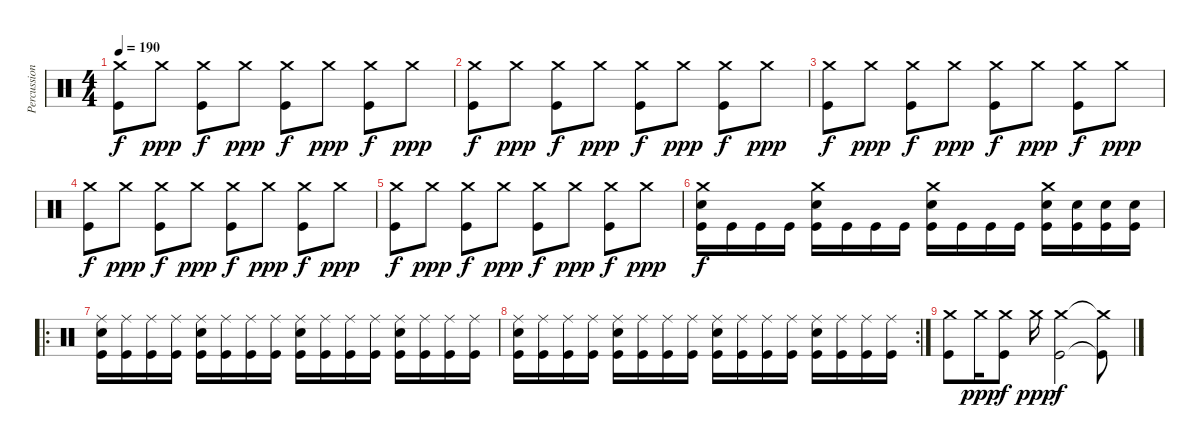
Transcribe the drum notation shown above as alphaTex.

\track ("Percussion" "Percussion") {instrument percussion}
\staff {score}
\articulation defaults
\ts (4 4)
\tempo 190
\clef neutral
\ks c
("Crash medium (hit)" "Kick (hit)").8{dy f} "Crash medium (hit)".8{dy ppp} ("Crash medium (hit)" "Kick (hit)").8{dy f} "Crash medium (hit)".8{dy ppp} ("Crash medium (hit)" "Kick (hit)").8{dy f} "Crash medium (hit)".8{dy ppp} ("Crash medium (hit)" "Kick (hit)").8{dy f} "Crash medium (hit)".8{dy ppp} |
("Crash medium (hit)" "Kick (hit)").8{dy f} "Crash medium (hit)".8{dy ppp} ("Crash medium (hit)" "Kick (hit)").8{dy f} "Crash medium (hit)".8{dy ppp} ("Crash medium (hit)" "Kick (hit)").8{dy f} "Crash medium (hit)".8{dy ppp} ("Crash medium (hit)" "Kick (hit)").8{dy f} "Crash medium (hit)".8{dy ppp} |
("Crash medium (hit)" "Kick (hit)").8{dy f} "Crash medium (hit)".8{dy ppp} ("Crash medium (hit)" "Kick (hit)").8{dy f} "Crash medium (hit)".8{dy ppp} ("Crash medium (hit)" "Kick (hit)").8{dy f} "Crash medium (hit)".8{dy ppp} ("Crash medium (hit)" "Kick (hit)").8{dy f} "Crash medium (hit)".8{dy ppp} |
("Crash medium (hit)" "Kick (hit)").8{dy f} "Crash medium (hit)".8{dy ppp} ("Crash medium (hit)" "Kick (hit)").8{dy f} "Crash medium (hit)".8{dy ppp} ("Crash medium (hit)" "Kick (hit)").8{dy f} "Crash medium (hit)".8{dy ppp} ("Crash medium (hit)" "Kick (hit)").8{dy f} "Crash medium (hit)".8{dy ppp} |
("Crash medium (hit)" "Kick (hit)").8{dy f} "Crash medium (hit)".8{dy ppp} ("Crash medium (hit)" "Kick (hit)").8{dy f} "Crash medium (hit)".8{dy ppp} ("Crash medium (hit)" "Kick (hit)").8{dy f} "Crash medium (hit)".8{dy ppp} ("Crash medium (hit)" "Kick (hit)").8{dy f} "Crash medium (hit)".8{dy ppp} |
("Crash medium (hit)" "Snare (hit) 2" "Kick (hit)").16{dy f} "Kick (hit)".16 "Kick (hit)".16 "Kick (hit)".16 ("Crash medium (hit)" "Snare (hit) 2" "Kick (hit)").16 "Kick (hit)".16 "Kick (hit)".16 "Kick (hit)".16 ("Crash medium (hit)" "Snare (hit) 2" "Kick (hit)").16 "Kick (hit)".16 "Kick (hit)".16 "Kick (hit)".16 ("Crash medium (hit)" "Snare (hit) 2" "Kick (hit)").16 ("Snare (hit) 2" "Kick (hit)").16 ("Snare (hit) 2" "Kick (hit)").16 ("Snare (hit) 2" "Kick (hit)").16 |
\ro
("Ride (middle)" "Snare (hit) 2" "Kick (hit)").16 ("Ride (middle)" "Kick (hit)").16 ("Ride (middle)" "Kick (hit)").16 ("Ride (middle)" "Kick (hit)").16 ("Ride (middle)" "Snare (hit) 2" "Kick (hit)").16 ("Ride (middle)" "Kick (hit)").16 ("Ride (middle)" "Kick (hit)").16 ("Ride (middle)" "Kick (hit)").16 ("Ride (middle)" "Snare (hit) 2" "Kick (hit)").16 ("Ride (middle)" "Kick (hit)").16 ("Ride (middle)" "Kick (hit)").16 ("Ride (middle)" "Kick (hit)").16 ("Ride (middle)" "Snare (hit) 2" "Kick (hit)").16 ("Ride (middle)" "Kick (hit)").16 ("Ride (middle)" "Kick (hit)").16 ("Ride (middle)" "Kick (hit)").16 |
\rc 2
("Ride (middle)" "Snare (hit) 2" "Kick (hit)").16 ("Ride (middle)" "Kick (hit)").16 ("Ride (middle)" "Kick (hit)").16 ("Ride (middle)" "Kick (hit)").16 ("Ride (middle)" "Snare (hit) 2" "Kick (hit)").16 ("Ride (middle)" "Kick (hit)").16 ("Ride (middle)" "Kick (hit)").16 ("Ride (middle)" "Kick (hit)").16 ("Ride (middle)" "Snare (hit) 2" "Kick (hit)").16 ("Ride (middle)" "Kick (hit)").16 ("Ride (middle)" "Kick (hit)").16 ("Ride (middle)" "Kick (hit)").16 ("Ride (middle)" "Snare (hit) 2" "Kick (hit)").16 ("Ride (middle)" "Kick (hit)").16 ("Ride (middle)" "Kick (hit)").16 ("Ride (middle)" "Kick (hit)").16 |
("Crash medium (hit)" "Kick (hit)").8 "Crash medium (hit)".16{dy ppp} ("Crash medium (hit)" "Kick (hit)").8{dy f} "Crash medium (hit)".16{dy ppp} ("Crash medium (hit)" "Kick (hit)").2{dy f} ("Crash medium (hit)"{t} "Kick (hit)"{t}).8
